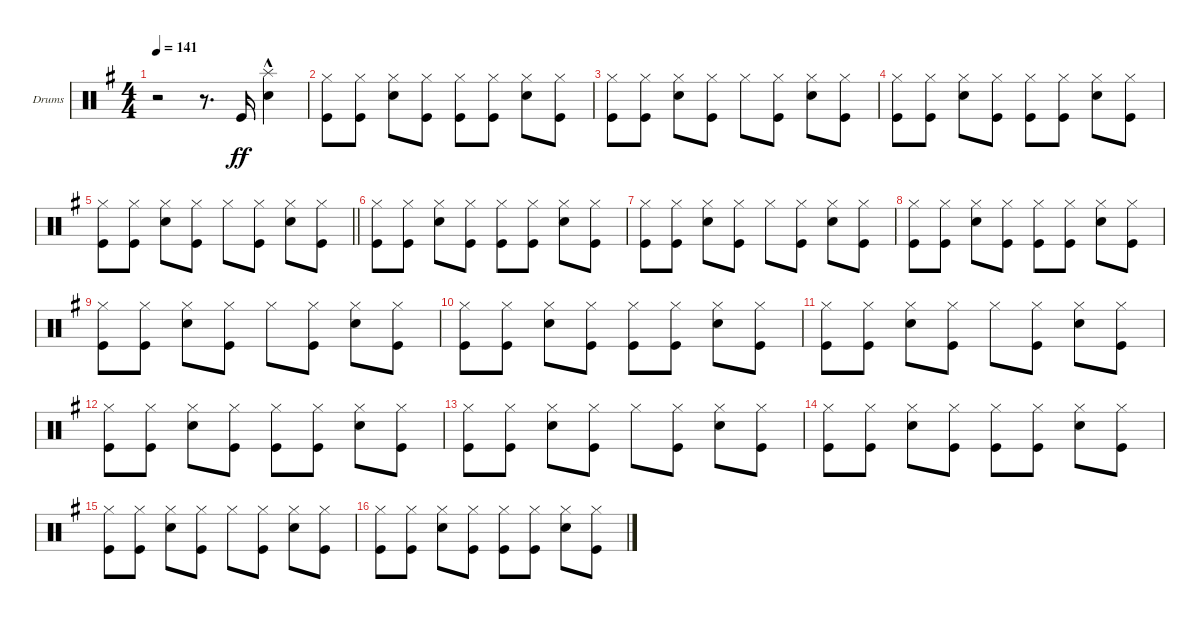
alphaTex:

\defaultSystemsLayout 4
\bracketExtendMode groupsimilarinstruments
\firstSystemTrackNameOrientation horizontal
\otherSystemsTrackNameOrientation horizontal
\track ("Drumkit" "Drums") {instrument percussion}
\staff {score}
\articulation defaults
\ts (4 4)
\tempo 141
\clef neutral
\ks g
r.2{dy ff} r.8{d} "Kick (hit)".16 ("Snare (hit) 2" "Splash (hit)"{hac}).4 |
\scale
0.502183 ("Kick (hit)" "Hi-Hat (closed)").8 ("Kick (hit)" "Hi-Hat (closed)").8 ("Snare (hit) 2" "Hi-Hat (closed)").8 ("Kick (hit)" "Hi-Hat (closed)").8 ("Kick (hit)" "Hi-Hat (closed)").8 ("Kick (hit)" "Hi-Hat (closed)").8 ("Snare (hit) 2" "Hi-Hat (closed)").8 ("Kick (hit)" "Hi-Hat (closed)").8 |
\scale
0.248908 ("Kick (hit)" "Hi-Hat (closed)").8 ("Kick (hit)" "Hi-Hat (closed)").8 ("Snare (hit) 2" "Hi-Hat (closed)").8 ("Kick (hit)" "Hi-Hat (closed)").8 "Hi-Hat (closed)".8 ("Kick (hit)" "Hi-Hat (closed)").8 ("Snare (hit) 2" "Hi-Hat (closed)").8 ("Kick (hit)" "Hi-Hat (closed)").8 |
\scale
0.248908 ("Kick (hit)" "Hi-Hat (closed)").8 ("Kick (hit)" "Hi-Hat (closed)").8 ("Snare (hit) 2" "Hi-Hat (closed)").8 ("Kick (hit)" "Hi-Hat (closed)").8 ("Kick (hit)" "Hi-Hat (closed)").8 ("Kick (hit)" "Hi-Hat (closed)").8 ("Snare (hit) 2" "Hi-Hat (closed)").8 ("Kick (hit)" "Hi-Hat (closed)").8 |
\scale
0.333333
\barLineRight lightlight
("Kick (hit)" "Hi-Hat (closed)").8 ("Kick (hit)" "Hi-Hat (closed)").8 ("Snare (hit) 2" "Hi-Hat (closed)").8 ("Hi-Hat (closed)" "Kick (hit)").8 "Hi-Hat (closed)".8 ("Kick (hit)" "Hi-Hat (closed)").8 ("Snare (hit) 2" "Hi-Hat (closed)").8 ("Kick (hit)" "Hi-Hat (closed)").8 |
\scale
0.333333 ("Kick (hit)" "Hi-Hat (closed)").8 ("Kick (hit)" "Hi-Hat (closed)").8 ("Snare (hit) 2" "Hi-Hat (closed)").8 ("Kick (hit)" "Hi-Hat (closed)").8 ("Kick (hit)" "Hi-Hat (closed)").8 ("Kick (hit)" "Hi-Hat (closed)").8 ("Snare (hit) 2" "Hi-Hat (closed)").8 ("Kick (hit)" "Hi-Hat (closed)").8 |
\scale
0.333333 ("Kick (hit)" "Hi-Hat (closed)").8 ("Kick (hit)" "Hi-Hat (closed)").8 ("Snare (hit) 2" "Hi-Hat (closed)").8 ("Hi-Hat (closed)" "Kick (hit)").8 "Hi-Hat (closed)".8 ("Kick (hit)" "Hi-Hat (closed)").8 ("Snare (hit) 2" "Hi-Hat (closed)").8 ("Kick (hit)" "Hi-Hat (closed)").8 |
\scale
0.333333 ("Kick (hit)" "Hi-Hat (closed)").8 ("Kick (hit)" "Hi-Hat (closed)").8 ("Snare (hit) 2" "Hi-Hat (closed)").8 ("Kick (hit)" "Hi-Hat (closed)").8 ("Kick (hit)" "Hi-Hat (closed)").8 ("Kick (hit)" "Hi-Hat (closed)").8 ("Snare (hit) 2" "Hi-Hat (closed)").8 ("Kick (hit)" "Hi-Hat (closed)").8 |
\scale
0.333333 ("Kick (hit)" "Hi-Hat (closed)").8 ("Kick (hit)" "Hi-Hat (closed)").8 ("Snare (hit) 2" "Hi-Hat (closed)").8 ("Hi-Hat (closed)" "Kick (hit)").8 "Hi-Hat (closed)".8 ("Kick (hit)" "Hi-Hat (closed)").8 ("Snare (hit) 2" "Hi-Hat (closed)").8 ("Kick (hit)" "Hi-Hat (closed)").8 |
\scale
0.333333 ("Kick (hit)" "Hi-Hat (closed)").8 ("Kick (hit)" "Hi-Hat (closed)").8 ("Snare (hit) 2" "Hi-Hat (closed)").8 ("Kick (hit)" "Hi-Hat (closed)").8 ("Kick (hit)" "Hi-Hat (closed)").8 ("Kick (hit)" "Hi-Hat (closed)").8 ("Snare (hit) 2" "Hi-Hat (closed)").8 ("Kick (hit)" "Hi-Hat (closed)").8 |
\scale
0.333333 ("Kick (hit)" "Hi-Hat (closed)").8 ("Kick (hit)" "Hi-Hat (closed)").8 ("Snare (hit) 2" "Hi-Hat (closed)").8 ("Kick (hit)" "Hi-Hat (closed)").8 "Hi-Hat (closed)".8 ("Kick (hit)" "Hi-Hat (closed)").8 ("Snare (hit) 2" "Hi-Hat (closed)").8 ("Kick (hit)" "Hi-Hat (closed)").8 |
\scale
0.333333 ("Kick (hit)" "Hi-Hat (closed)").8 ("Kick (hit)" "Hi-Hat (closed)").8 ("Snare (hit) 2" "Hi-Hat (closed)").8 ("Kick (hit)" "Hi-Hat (closed)").8 ("Kick (hit)" "Hi-Hat (closed)").8 ("Kick (hit)" "Hi-Hat (closed)").8 ("Snare (hit) 2" "Hi-Hat (closed)").8 ("Kick (hit)" "Hi-Hat (closed)").8 |
\scale
0.333333 ("Kick (hit)" "Hi-Hat (closed)").8 ("Kick (hit)" "Hi-Hat (closed)").8 ("Snare (hit) 2" "Hi-Hat (closed)").8 ("Hi-Hat (closed)" "Kick (hit)").8 "Hi-Hat (closed)".8 ("Kick (hit)" "Hi-Hat (closed)").8 ("Snare (hit) 2" "Hi-Hat (closed)").8 ("Kick (hit)" "Hi-Hat (closed)").8 |
\scale
0.333333 ("Kick (hit)" "Hi-Hat (closed)").8 ("Kick (hit)" "Hi-Hat (closed)").8 ("Snare (hit) 2" "Hi-Hat (closed)").8 ("Kick (hit)" "Hi-Hat (closed)").8 ("Kick (hit)" "Hi-Hat (closed)").8 ("Kick (hit)" "Hi-Hat (closed)").8 ("Snare (hit) 2" "Hi-Hat (closed)").8 ("Kick (hit)" "Hi-Hat (closed)").8 |
\scale
0.333333 ("Kick (hit)" "Hi-Hat (closed)").8 ("Kick (hit)" "Hi-Hat (closed)").8 ("Snare (hit) 2" "Hi-Hat (closed)").8 ("Hi-Hat (closed)" "Kick (hit)").8 "Hi-Hat (closed)".8 ("Kick (hit)" "Hi-Hat (closed)").8 ("Snare (hit) 2" "Hi-Hat (closed)").8 ("Kick (hit)" "Hi-Hat (closed)").8 |
\scale
0.333333 ("Kick (hit)" "Hi-Hat (closed)").8 ("Kick (hit)" "Hi-Hat (closed)").8 ("Snare (hit) 2" "Hi-Hat (closed)").8 ("Kick (hit)" "Hi-Hat (closed)").8 ("Kick (hit)" "Hi-Hat (closed)").8 ("Kick (hit)" "Hi-Hat (closed)").8 ("Snare (hit) 2" "Hi-Hat (closed)").8 ("Kick (hit)" "Hi-Hat (closed)").8
